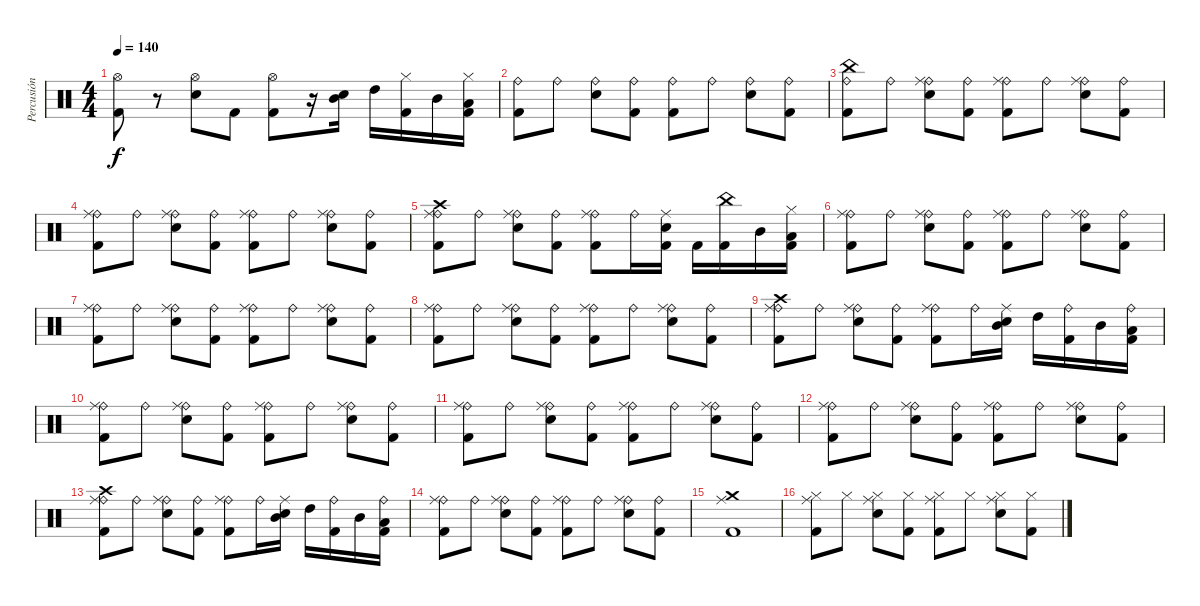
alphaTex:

\track ("Percusión" "Percusión") {instrument percussion}
\staff {score}
\articulation defaults
\ts (4 4)
\tempo 140
\clef neutral
\ks c
("Hi-Hat (open)" "Kick (hit) 2").8{dy f} r.8 ("Hi-Hat (open)" "Snare (hit) 2").8 "Kick (hit) 2".8 ("Hi-Hat (open)" "Kick (hit) 2").8 r.16 ("Mid Tom (hit)" "Snare (hit) 2").16 "High Tom (hit)".16 ("Hi-Hat (closed)" "Kick (hit) 2").16 "Mid Tom (hit)".16 ("Hi-Hat (closed)" "Low Tom (hit)" "Kick (hit) 2").16 |
("Ride (bell)" "Kick (hit) 2").8 "Ride (bell)".8 ("Ride (bell)" "Snare (hit) 2").8 ("Ride (bell)" "Kick (hit) 2").8 ("Ride (bell)" "Kick (hit) 2").8 "Ride (bell)".8 ("Ride (bell)" "Snare (hit) 2").8 ("Ride (bell)" "Kick (hit) 2").8 |
("Ride (bell)" "Kick (hit) 2" "China (hit)").8 "Ride (bell)".8 ("Ride (bell)" "Snare (hit) 2" "Ride (middle)").8 ("Ride (bell)" "Kick (hit) 2").8 ("Ride (bell)" "Kick (hit) 2" "Ride (middle)").8 "Ride (bell)".8 ("Ride (bell)" "Snare (hit) 2" "Ride (middle)").8 ("Ride (bell)" "Kick (hit) 2").8 |
("Ride (bell)" "Kick (hit) 2" "Ride (middle)").8 "Ride (bell)".8 ("Ride (bell)" "Snare (hit) 2" "Ride (middle)").8 ("Ride (bell)" "Kick (hit) 2").8 ("Ride (bell)" "Kick (hit) 2" "Ride (middle)").8 "Ride (bell)".8 ("Ride (bell)" "Snare (hit) 2" "Ride (middle)").8 ("Ride (bell)" "Kick (hit) 2").8 |
("Ride (bell)" "Kick (hit) 2" "Crash high (hit)" "Ride (middle)").8 "Ride (bell)".8 ("Ride (bell)" "Snare (hit) 2" "Ride (middle)").8 ("Ride (bell)" "Kick (hit) 2").8 ("Ride (bell)" "Kick (hit) 2" "Ride (middle)").8 "Ride (bell)".16 ("Kick (hit) 2" "Snare (hit) 2" "Ride (middle)").16 "Kick (hit) 2".16 ("China (hit)" "Kick (hit) 2").16 "Mid Tom (hit)".16 ("Hi-Hat (closed)" "Low Tom (hit)" "Kick (hit) 2").16 |
("Ride (bell)" "Kick (hit) 2" "Ride (middle)").8 "Ride (bell)".8 ("Ride (bell)" "Snare (hit) 2" "Ride (middle)").8 ("Ride (bell)" "Kick (hit) 2").8 ("Ride (bell)" "Kick (hit) 2" "Ride (middle)").8 "Ride (bell)".8 ("Ride (bell)" "Snare (hit) 2" "Ride (middle)").8 ("Ride (bell)" "Kick (hit) 2").8 |
("Ride (bell)" "Kick (hit) 2" "Ride (middle)").8 "Ride (bell)".8 ("Ride (bell)" "Snare (hit) 2" "Ride (middle)").8 ("Ride (bell)" "Kick (hit) 2").8 ("Ride (bell)" "Kick (hit) 2" "Ride (middle)").8 "Ride (bell)".8 ("Ride (bell)" "Snare (hit) 2" "Ride (middle)").8 ("Ride (bell)" "Kick (hit) 2").8 |
("Ride (bell)" "Kick (hit) 2" "Ride (middle)").8 "Ride (bell)".8 ("Ride (bell)" "Snare (hit) 2" "Ride (middle)").8 ("Ride (bell)" "Kick (hit) 2").8 ("Ride (bell)" "Kick (hit) 2" "Ride (middle)").8 "Ride (bell)".8 ("Ride (bell)" "Snare (hit) 2" "Ride (middle)").8 ("Ride (bell)" "Kick (hit) 2").8 |
("Ride (bell)" "Kick (hit) 2" "Crash high (hit)" "Ride (middle)").8 "Ride (bell)".8 ("Ride (bell)" "Snare (hit) 2" "Ride (middle)").8 ("Ride (bell)" "Kick (hit) 2").8 ("Ride (bell)" "Kick (hit) 2" "Ride (middle)").8 "Ride (bell)".16 ("Mid Tom (hit)" "Snare (hit) 2" "Ride (middle)").16 "High Tom (hit)".16 ("Ride (bell)" "Kick (hit) 2").16 "Mid Tom (hit)".16 ("Ride (bell)" "Low Tom (hit)" "Kick (hit) 2").16 |
("Ride (bell)" "Kick (hit) 2" "Ride (middle)").8 "Ride (bell)".8 ("Ride (bell)" "Snare (hit) 2" "Ride (middle)").8 ("Ride (bell)" "Kick (hit) 2").8 ("Ride (bell)" "Kick (hit) 2" "Ride (middle)").8 "Ride (bell)".8 ("Ride (bell)" "Snare (hit) 2" "Ride (middle)").8 ("Ride (bell)" "Kick (hit) 2").8 |
("Ride (bell)" "Kick (hit) 2" "Ride (middle)").8 "Ride (bell)".8 ("Ride (bell)" "Snare (hit) 2" "Ride (middle)").8 ("Ride (bell)" "Kick (hit) 2").8 ("Ride (bell)" "Kick (hit) 2" "Ride (middle)").8 "Ride (bell)".8 ("Ride (bell)" "Snare (hit) 2" "Ride (middle)").8 ("Ride (bell)" "Kick (hit) 2").8 |
("Ride (bell)" "Kick (hit) 2" "Ride (middle)").8 "Ride (bell)".8 ("Ride (bell)" "Snare (hit) 2" "Ride (middle)").8 ("Ride (bell)" "Kick (hit) 2").8 ("Ride (bell)" "Kick (hit) 2" "Ride (middle)").8 "Ride (bell)".8 ("Ride (bell)" "Snare (hit) 2" "Ride (middle)").8 ("Ride (bell)" "Kick (hit) 2").8 |
("Ride (bell)" "Kick (hit) 2" "Crash high (hit)" "Ride (middle)").8 "Ride (bell)".8 ("Ride (bell)" "Snare (hit) 2" "Ride (middle)").8 ("Ride (bell)" "Kick (hit) 2").8 ("Ride (bell)" "Kick (hit) 2" "Ride (middle)").8 "Ride (bell)".16 ("Mid Tom (hit)" "Snare (hit) 2" "Ride (middle)").16 "High Tom (hit)".16 ("Ride (bell)" "Kick (hit) 2").16 "Mid Tom (hit)".16 ("Ride (bell)" "Low Tom (hit)" "Kick (hit) 2").16 |
("Ride (bell)" "Kick (hit) 2" "Ride (middle)").8 "Ride (bell)".8 ("Ride (bell)" "Snare (hit) 2" "Ride (middle)").8 ("Ride (bell)" "Kick (hit) 2").8 ("Ride (bell)" "Kick (hit) 2" "Ride (middle)").8 "Ride (bell)".8 ("Ride (bell)" "Snare (hit) 2" "Ride (middle)").8 ("Ride (bell)" "Kick (hit) 2").8 |
("Crash medium (hit)" "Kick (hit) 2" "Ride (middle)").1 |
("Hi-Hat (closed)" "Kick (hit) 2" "Ride (middle)").8 "Hi-Hat (closed)".8 ("Hi-Hat (closed)" "Snare (hit) 2" "Ride (middle)").8 ("Hi-Hat (closed)" "Kick (hit) 2").8 ("Hi-Hat (closed)" "Kick (hit) 2" "Ride (middle)").8 "Hi-Hat (closed)".8 ("Hi-Hat (closed)" "Snare (hit) 2" "Ride (middle)").8 ("Hi-Hat (closed)" "Kick (hit) 2").8
